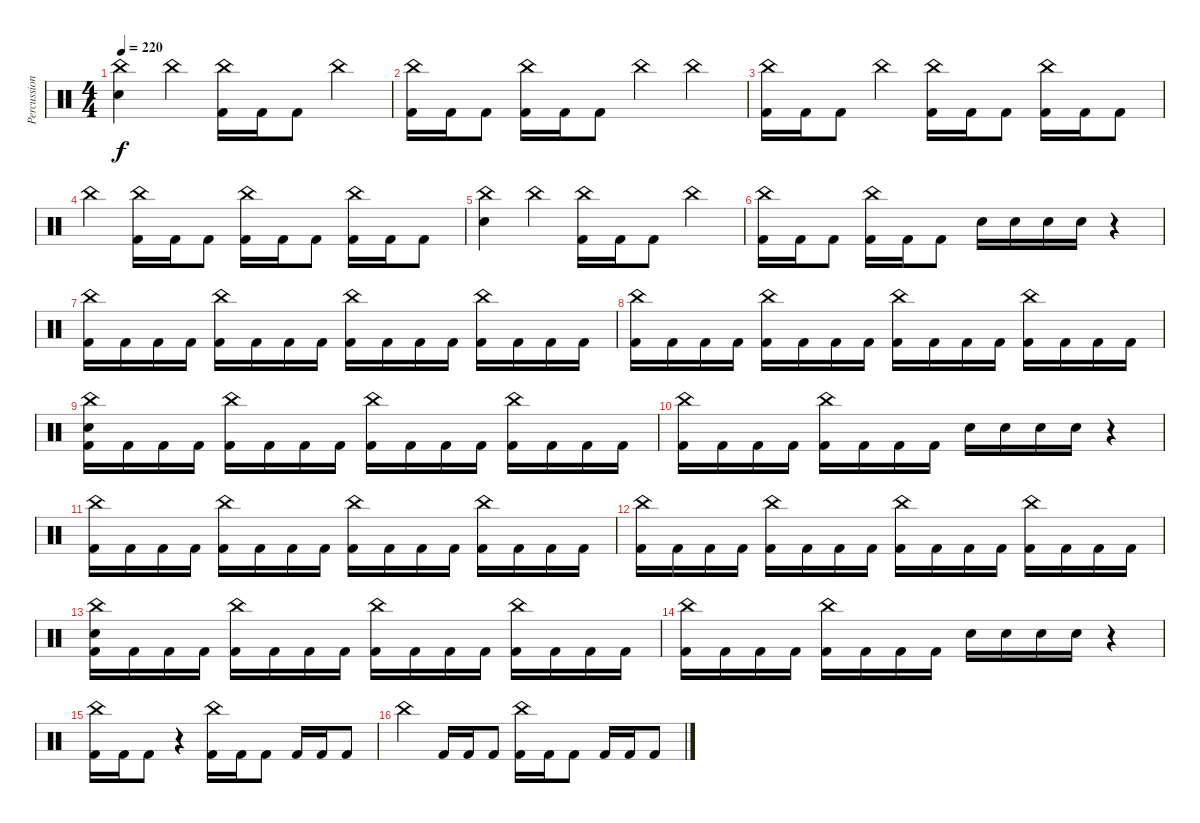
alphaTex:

\track ("Percussion" "Percussion") {instrument percussion}
\staff {score}
\articulation defaults
\ts (4 4)
\tempo 220
\clef neutral
\ks c
("China (hit)" "Electric Snare (hit)").4{dy f} "China (hit)".4 ("China (hit)" "Kick (hit) 2").16 "Kick (hit) 2".16 "Kick (hit) 2".8 "China (hit)".4 |
("China (hit)" "Kick (hit) 2").16 "Kick (hit) 2".16 "Kick (hit) 2".8 ("China (hit)" "Kick (hit) 2").16 "Kick (hit) 2".16 "Kick (hit) 2".8 "China (hit)".4 "China (hit)".4 |
("China (hit)" "Kick (hit) 2").16 "Kick (hit) 2".16 "Kick (hit) 2".8 "China (hit)".4 ("China (hit)" "Kick (hit) 2").16 "Kick (hit) 2".16 "Kick (hit) 2".8 ("China (hit)" "Kick (hit) 2").16 "Kick (hit) 2".16 "Kick (hit) 2".8 |
"China (hit)".4 ("China (hit)" "Kick (hit) 2").16 "Kick (hit) 2".16 "Kick (hit) 2".8 ("China (hit)" "Kick (hit) 2").16 "Kick (hit) 2".16 "Kick (hit) 2".8 ("China (hit)" "Kick (hit) 2").16 "Kick (hit) 2".16 "Kick (hit) 2".8 |
("China (hit)" "Electric Snare (hit)").4 "China (hit)".4 ("China (hit)" "Kick (hit) 2").16 "Kick (hit) 2".16 "Kick (hit) 2".8 "China (hit)".4 |
("China (hit)" "Kick (hit) 2").16 "Kick (hit) 2".16 "Kick (hit) 2".8 ("China (hit)" "Kick (hit) 2").16 "Kick (hit) 2".16 "Kick (hit) 2".8 "Electric Snare (hit)".16 "Electric Snare (hit)".16 "Electric Snare (hit)".16 "Electric Snare (hit)".16 r.4 |
("China (hit)" "Kick (hit) 2").16 "Kick (hit) 2".16 "Kick (hit) 2".16 "Kick (hit) 2".16 ("China (hit)" "Kick (hit) 2").16 "Kick (hit) 2".16 "Kick (hit) 2".16 "Kick (hit) 2".16 ("China (hit)" "Kick (hit) 2").16 "Kick (hit) 2".16 "Kick (hit) 2".16 "Kick (hit) 2".16 ("China (hit)" "Kick (hit) 2").16 "Kick (hit) 2".16 "Kick (hit) 2".16 "Kick (hit) 2".16 |
("China (hit)" "Kick (hit) 2").16 "Kick (hit) 2".16 "Kick (hit) 2".16 "Kick (hit) 2".16 ("China (hit)" "Kick (hit) 2").16 "Kick (hit) 2".16 "Kick (hit) 2".16 "Kick (hit) 2".16 ("China (hit)" "Kick (hit) 2").16 "Kick (hit) 2".16 "Kick (hit) 2".16 "Kick (hit) 2".16 ("China (hit)" "Kick (hit) 2").16 "Kick (hit) 2".16 "Kick (hit) 2".16 "Kick (hit) 2".16 |
("China (hit)" "Electric Snare (hit)" "Kick (hit) 2").16 "Kick (hit) 2".16 "Kick (hit) 2".16 "Kick (hit) 2".16 ("China (hit)" "Kick (hit) 2").16 "Kick (hit) 2".16 "Kick (hit) 2".16 "Kick (hit) 2".16 ("China (hit)" "Kick (hit) 2").16 "Kick (hit) 2".16 "Kick (hit) 2".16 "Kick (hit) 2".16 ("China (hit)" "Kick (hit) 2").16 "Kick (hit) 2".16 "Kick (hit) 2".16 "Kick (hit) 2".16 |
("China (hit)" "Kick (hit) 2").16 "Kick (hit) 2".16 "Kick (hit) 2".16 "Kick (hit) 2".16 ("China (hit)" "Kick (hit) 2").16 "Kick (hit) 2".16 "Kick (hit) 2".16 "Kick (hit) 2".16 "Electric Snare (hit)".16 "Electric Snare (hit)".16 "Electric Snare (hit)".16 "Electric Snare (hit)".16 r.4 |
("China (hit)" "Kick (hit) 2").16 "Kick (hit) 2".16 "Kick (hit) 2".16 "Kick (hit) 2".16 ("China (hit)" "Kick (hit) 2").16 "Kick (hit) 2".16 "Kick (hit) 2".16 "Kick (hit) 2".16 ("China (hit)" "Kick (hit) 2").16 "Kick (hit) 2".16 "Kick (hit) 2".16 "Kick (hit) 2".16 ("China (hit)" "Kick (hit) 2").16 "Kick (hit) 2".16 "Kick (hit) 2".16 "Kick (hit) 2".16 |
("China (hit)" "Kick (hit) 2").16 "Kick (hit) 2".16 "Kick (hit) 2".16 "Kick (hit) 2".16 ("China (hit)" "Kick (hit) 2").16 "Kick (hit) 2".16 "Kick (hit) 2".16 "Kick (hit) 2".16 ("China (hit)" "Kick (hit) 2").16 "Kick (hit) 2".16 "Kick (hit) 2".16 "Kick (hit) 2".16 ("China (hit)" "Kick (hit) 2").16 "Kick (hit) 2".16 "Kick (hit) 2".16 "Kick (hit) 2".16 |
("China (hit)" "Electric Snare (hit)" "Kick (hit) 2").16 "Kick (hit) 2".16 "Kick (hit) 2".16 "Kick (hit) 2".16 ("China (hit)" "Kick (hit) 2").16 "Kick (hit) 2".16 "Kick (hit) 2".16 "Kick (hit) 2".16 ("China (hit)" "Kick (hit) 2").16 "Kick (hit) 2".16 "Kick (hit) 2".16 "Kick (hit) 2".16 ("China (hit)" "Kick (hit) 2").16 "Kick (hit) 2".16 "Kick (hit) 2".16 "Kick (hit) 2".16 |
("China (hit)" "Kick (hit) 2").16 "Kick (hit) 2".16 "Kick (hit) 2".16 "Kick (hit) 2".16 ("China (hit)" "Kick (hit) 2").16 "Kick (hit) 2".16 "Kick (hit) 2".16 "Kick (hit) 2".16 "Electric Snare (hit)".16 "Electric Snare (hit)".16 "Electric Snare (hit)".16 "Electric Snare (hit)".16 r.4 |
("China (hit)" "Kick (hit) 2").16 "Kick (hit) 2".16 "Kick (hit) 2".8 r.4 ("China (hit)" "Kick (hit) 2").16 "Kick (hit) 2".16 "Kick (hit) 2".8 "Kick (hit) 2".16 "Kick (hit) 2".16 "Kick (hit) 2".8 |
"China (hit)".4 "Kick (hit) 2".16 "Kick (hit) 2".16 "Kick (hit) 2".8 ("China (hit)" "Kick (hit) 2").16 "Kick (hit) 2".16 "Kick (hit) 2".8 "Kick (hit) 2".16 "Kick (hit) 2".16 "Kick (hit) 2".8
